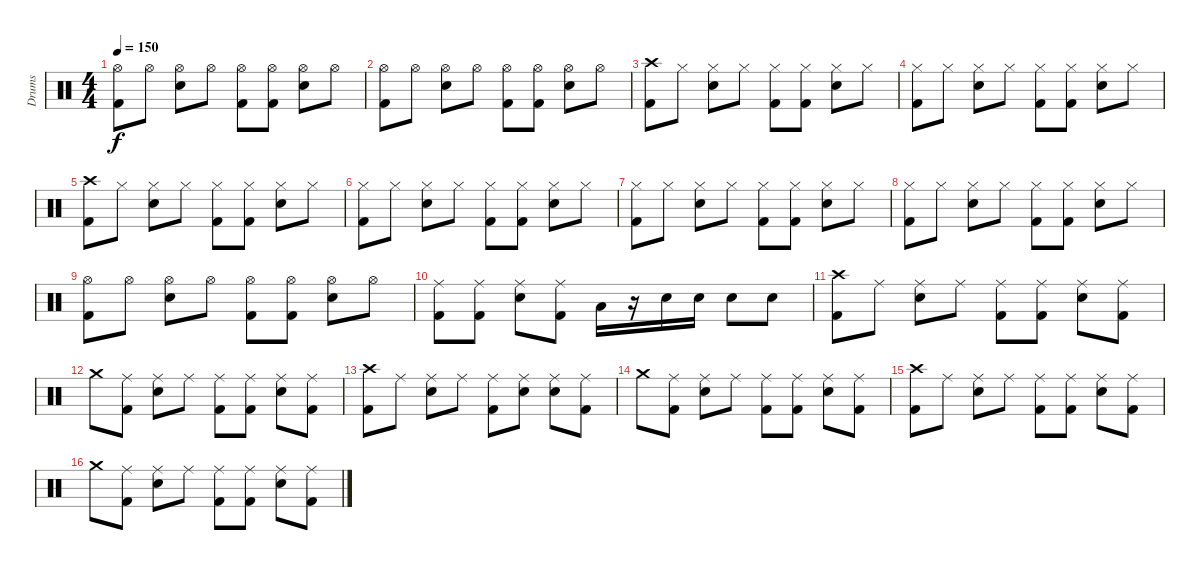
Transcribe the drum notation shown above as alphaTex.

\track ("Drums" "Drums") {instrument percussion}
\staff {score}
\articulation defaults
\ts (4 4)
\tempo 150
\clef neutral
\ks c
("Hi-Hat (open)" "Kick (hit) 2").8{dy f} "Hi-Hat (open)".8 ("Hi-Hat (open)" "Electric Snare (hit)").8 "Hi-Hat (open)".8 ("Hi-Hat (open)" "Kick (hit) 2").8 ("Hi-Hat (open)" "Kick (hit) 2").8 ("Hi-Hat (open)" "Electric Snare (hit)").8 "Hi-Hat (open)".8 |
("Hi-Hat (open)" "Kick (hit) 2").8 "Hi-Hat (open)".8 ("Hi-Hat (open)" "Electric Snare (hit)").8 "Hi-Hat (open)".8 ("Hi-Hat (open)" "Kick (hit) 2").8 ("Hi-Hat (open)" "Kick (hit) 2").8 ("Hi-Hat (open)" "Electric Snare (hit)").8 "Hi-Hat (open)".8 |
("Crash high (hit)" "Kick (hit) 2").8 "Hi-Hat (closed)".8 ("Hi-Hat (closed)" "Electric Snare (hit)").8 "Hi-Hat (closed)".8 ("Hi-Hat (closed)" "Kick (hit) 2").8 ("Hi-Hat (closed)" "Kick (hit) 2").8 ("Hi-Hat (closed)" "Electric Snare (hit)").8 "Hi-Hat (closed)".8 |
("Hi-Hat (closed)" "Kick (hit) 2").8 "Hi-Hat (closed)".8 ("Hi-Hat (closed)" "Electric Snare (hit)").8 "Hi-Hat (closed)".8 ("Hi-Hat (closed)" "Kick (hit) 2").8 ("Hi-Hat (closed)" "Kick (hit) 2").8 ("Hi-Hat (closed)" "Electric Snare (hit)").8 "Hi-Hat (closed)".8 |
("Crash high (hit)" "Kick (hit) 2").8 "Hi-Hat (closed)".8 ("Hi-Hat (closed)" "Electric Snare (hit)").8 "Hi-Hat (closed)".8 ("Hi-Hat (closed)" "Kick (hit) 2").8 ("Hi-Hat (closed)" "Kick (hit) 2").8 ("Hi-Hat (closed)" "Electric Snare (hit)").8 "Hi-Hat (closed)".8 |
("Hi-Hat (closed)" "Kick (hit) 2").8 "Hi-Hat (closed)".8 ("Hi-Hat (closed)" "Electric Snare (hit)").8 "Hi-Hat (closed)".8 ("Hi-Hat (closed)" "Kick (hit) 2").8 ("Hi-Hat (closed)" "Kick (hit) 2").8 ("Hi-Hat (closed)" "Electric Snare (hit)").8 "Hi-Hat (closed)".8 |
("Hi-Hat (closed)" "Kick (hit) 2").8 "Hi-Hat (closed)".8 ("Hi-Hat (closed)" "Electric Snare (hit)").8 "Hi-Hat (closed)".8 ("Hi-Hat (closed)" "Kick (hit) 2").8 ("Hi-Hat (closed)" "Kick (hit) 2").8 ("Hi-Hat (closed)" "Electric Snare (hit)").8 "Hi-Hat (closed)".8 |
("Hi-Hat (closed)" "Kick (hit) 2").8 "Hi-Hat (closed)".8 ("Hi-Hat (closed)" "Electric Snare (hit)").8 "Hi-Hat (closed)".8 ("Hi-Hat (closed)" "Kick (hit) 2").8 ("Hi-Hat (closed)" "Kick (hit) 2").8 ("Hi-Hat (closed)" "Electric Snare (hit)").8 "Hi-Hat (closed)".8 |
("Hi-Hat (open)" "Kick (hit) 2").8 "Hi-Hat (open)".8 ("Hi-Hat (open)" "Electric Snare (hit)").8 "Hi-Hat (open)".8 ("Hi-Hat (open)" "Kick (hit) 2").8 ("Hi-Hat (open)" "Kick (hit) 2").8 ("Hi-Hat (open)" "Electric Snare (hit)").8 "Hi-Hat (open)".8 |
("Ride (middle)" "Kick (hit) 2").8 ("Ride (middle)" "Kick (hit) 2").8 ("Ride (middle)" "Electric Snare (hit)").8 ("Ride (middle)" "Kick (hit) 2").8 "Low Floor Tom (hit)".16 r.16 "Electric Snare (hit)".16 "Electric Snare (hit)".16 "Electric Snare (hit)".8 "Electric Snare (hit)".8 |
("Crash high (hit)" "Kick (hit) 2").8 "Ride (middle)".8 ("Ride (middle)" "Electric Snare (hit)").8 "Ride (middle)".8 ("Ride (middle)" "Kick (hit) 2").8 ("Ride (middle)" "Kick (hit) 2").8 ("Ride (middle)" "Electric Snare (hit)").8 ("Ride (middle)" "Kick (hit) 2").8 |
"Crash medium (hit)".8 ("Ride (middle)" "Kick (hit) 2").8 ("Ride (middle)" "Electric Snare (hit)").8 "Ride (middle)".8 ("Ride (middle)" "Kick (hit) 2").8 ("Ride (middle)" "Kick (hit) 2").8 ("Ride (middle)" "Electric Snare (hit)").8 ("Ride (middle)" "Kick (hit) 2").8 |
("Crash high (hit)" "Kick (hit) 2").8 "Ride (middle)".8 ("Ride (middle)" "Electric Snare (hit)").8 "Ride (middle)".8 ("Ride (middle)" "Kick (hit) 2").8 ("Ride (middle)" "Electric Snare (hit)").8 ("Ride (middle)" "Electric Snare (hit)").8 ("Ride (middle)" "Kick (hit) 2").8 |
"Crash medium (hit)".8 ("Ride (middle)" "Kick (hit) 2").8 ("Ride (middle)" "Electric Snare (hit)").8 "Ride (middle)".8 ("Ride (middle)" "Kick (hit) 2").8 ("Ride (middle)" "Kick (hit) 2").8 ("Ride (middle)" "Electric Snare (hit)").8 ("Ride (middle)" "Kick (hit) 2").8 |
("Crash high (hit)" "Kick (hit) 2").8 "Ride (middle)".8 ("Ride (middle)" "Electric Snare (hit)").8 "Ride (middle)".8 ("Ride (middle)" "Kick (hit) 2").8 ("Ride (middle)" "Kick (hit) 2").8 ("Ride (middle)" "Electric Snare (hit)").8 ("Ride (middle)" "Kick (hit) 2").8 |
"Crash medium (hit)".8 ("Ride (middle)" "Kick (hit) 2").8 ("Ride (middle)" "Electric Snare (hit)").8 "Ride (middle)".8 ("Ride (middle)" "Kick (hit) 2").8 ("Ride (middle)" "Kick (hit) 2").8 ("Ride (middle)" "Electric Snare (hit)").8 ("Ride (middle)" "Kick (hit) 2").8
